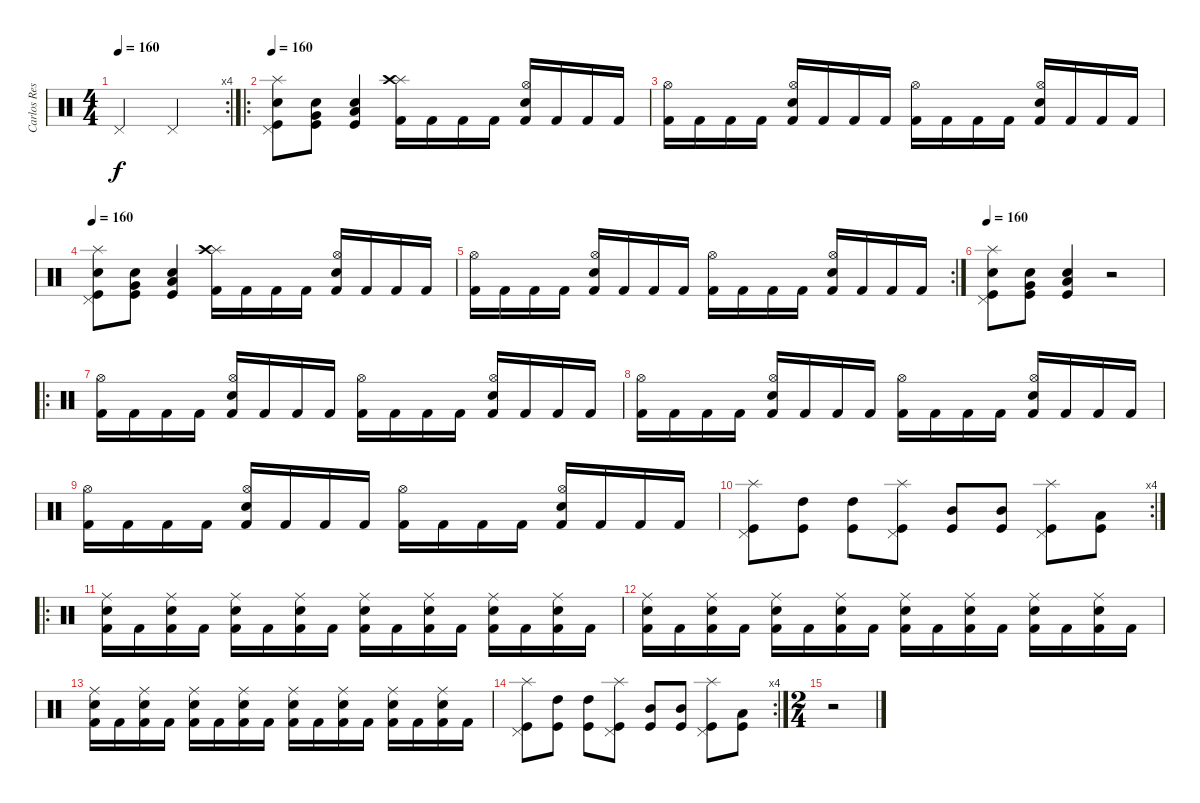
\track ("Carlos Restrepo" "Carlos Res") {instrument percussion}
\staff {score}
\articulation defaults
\rc 4
\ts (4 4)
\tempo 160
\clef neutral
\ks c "Pedal Hi-Hat (hit)".2{dy f} "Pedal Hi-Hat (hit)".2
|
\ro
\tempo 160
("Kick (hit)" "Pedal Hi-Hat (hit)" "Snare (hit) 2" "Splash (hit)").8 ("Kick (hit)" "Snare (hit) 2" "Very Low Tom (hit)").8 ("Kick (hit)" "Snare (hit) 2" "Low Tom (hit)").4 ("Splash (hit)" "Crash high (hit)" "Kick (hit) 2").16 "Kick (hit) 2".16 "Kick (hit) 2".16 "Kick (hit) 2".16 ("Hi-Hat (open)" "Electric Snare (hit)" "Kick (hit) 2").16 "Kick (hit) 2".16 "Kick (hit) 2".16 "Kick (hit) 2".16 |
("Hi-Hat (open)" "Kick (hit) 2").16 "Kick (hit) 2".16 "Kick (hit) 2".16 "Kick (hit) 2".16 ("Hi-Hat (open)" "Electric Snare (hit)" "Kick (hit) 2").16 "Kick (hit) 2".16 "Kick (hit) 2".16 "Kick (hit) 2".16 ("Hi-Hat (open)" "Kick (hit) 2").16 "Kick (hit) 2".16 "Kick (hit) 2".16 "Kick (hit) 2".16 ("Hi-Hat (open)" "Electric Snare (hit)" "Kick (hit) 2").16 "Kick (hit) 2".16 "Kick (hit) 2".16 "Kick (hit) 2".16 |
\tempo 160
("Kick (hit)" "Pedal Hi-Hat (hit)" "Snare (hit) 2" "Splash (hit)").8 ("Kick (hit)" "Snare (hit) 2" "Very Low Tom (hit)").8 ("Kick (hit)" "Snare (hit) 2" "Low Tom (hit)").4 ("Splash (hit)" "Crash high (hit)" "Kick (hit) 2").16 "Kick (hit) 2".16 "Kick (hit) 2".16 "Kick (hit) 2".16 ("Hi-Hat (open)" "Electric Snare (hit)" "Kick (hit) 2").16 "Kick (hit) 2".16 "Kick (hit) 2".16 "Kick (hit) 2".16 |
\rc 2
("Hi-Hat (open)" "Kick (hit) 2").16 "Kick (hit) 2".16 "Kick (hit) 2".16 "Kick (hit) 2".16 ("Hi-Hat (open)" "Electric Snare (hit)" "Kick (hit) 2").16 "Kick (hit) 2".16 "Kick (hit) 2".16 "Kick (hit) 2".16 ("Hi-Hat (open)" "Kick (hit) 2").16 "Kick (hit) 2".16 "Kick (hit) 2".16 "Kick (hit) 2".16 ("Hi-Hat (open)" "Electric Snare (hit)" "Kick (hit) 2").16 "Kick (hit) 2".16 "Kick (hit) 2".16 "Kick (hit) 2".16 |
\tempo 160
("Kick (hit)" "Pedal Hi-Hat (hit)" "Snare (hit) 2" "Splash (hit)").8 ("Kick (hit)" "Snare (hit) 2" "Very Low Tom (hit)").8 ("Kick (hit)" "Snare (hit) 2" "Low Tom (hit)").4 r.2 |
\ro
("Hi-Hat (open)" "Kick (hit) 2").16 "Kick (hit) 2".16 "Kick (hit) 2".16 "Kick (hit) 2".16 ("Hi-Hat (open)" "Electric Snare (hit)" "Kick (hit) 2").16 "Kick (hit) 2".16 "Kick (hit) 2".16 "Kick (hit) 2".16 ("Hi-Hat (open)" "Kick (hit) 2").16 "Kick (hit) 2".16 "Kick (hit) 2".16 "Kick (hit) 2".16 ("Hi-Hat (open)" "Electric Snare (hit)" "Kick (hit) 2").16 "Kick (hit) 2".16 "Kick (hit) 2".16 "Kick (hit) 2".16 |
("Hi-Hat (open)" "Kick (hit) 2").16 "Kick (hit) 2".16 "Kick (hit) 2".16 "Kick (hit) 2".16 ("Hi-Hat (open)" "Electric Snare (hit)" "Kick (hit) 2").16 "Kick (hit) 2".16 "Kick (hit) 2".16 "Kick (hit) 2".16 ("Hi-Hat (open)" "Kick (hit) 2").16 "Kick (hit) 2".16 "Kick (hit) 2".16 "Kick (hit) 2".16 ("Hi-Hat (open)" "Electric Snare (hit)" "Kick (hit) 2").16 "Kick (hit) 2".16 "Kick (hit) 2".16 "Kick (hit) 2".16 |
("Hi-Hat (open)" "Kick (hit) 2").16 "Kick (hit) 2".16 "Kick (hit) 2".16 "Kick (hit) 2".16 ("Hi-Hat (open)" "Electric Snare (hit)" "Kick (hit) 2").16 "Kick (hit) 2".16 "Kick (hit) 2".16 "Kick (hit) 2".16 ("Hi-Hat (open)" "Kick (hit) 2").16 "Kick (hit) 2".16 "Kick (hit) 2".16 "Kick (hit) 2".16 ("Hi-Hat (open)" "Electric Snare (hit)" "Kick (hit) 2").16 "Kick (hit) 2".16 "Kick (hit) 2".16 "Kick (hit) 2".16 |
\rc 4
("Splash (hit)" "Pedal Hi-Hat (hit)" "Kick (hit)").8 ("High Tom (hit)" "Kick (hit)").8 ("High Tom (hit)" "Kick (hit)").8 ("Splash (hit)" "Pedal Hi-Hat (hit)" "Kick (hit)").8 ("Mid Tom (hit)" "Kick (hit)").8 ("Mid Tom (hit)" "Kick (hit)").8 ("Splash (hit)" "Pedal Hi-Hat (hit)" "Kick (hit)").8 ("Low Tom (hit)" "Kick (hit)").8 |
\ro
("Kick (hit) 2" "Snare (hit) 2" "Ride (middle)").16 "Kick (hit) 2".16 ("Kick (hit) 2" "Snare (hit) 2" "Ride (middle)").16 "Kick (hit) 2".16 ("Kick (hit) 2" "Snare (hit) 2" "Ride (middle)").16 "Kick (hit) 2".16 ("Kick (hit) 2" "Snare (hit) 2" "Ride (middle)").16 "Kick (hit) 2".16 ("Kick (hit) 2" "Snare (hit) 2" "Ride (middle)").16 "Kick (hit) 2".16 ("Kick (hit) 2" "Snare (hit) 2" "Ride (middle)").16 "Kick (hit) 2".16 ("Kick (hit) 2" "Snare (hit) 2" "Ride (middle)").16 "Kick (hit) 2".16 ("Kick (hit) 2" "Snare (hit) 2" "Ride (middle)").16 "Kick (hit) 2".16 |
("Kick (hit) 2" "Snare (hit) 2" "Ride (middle)").16 "Kick (hit) 2".16 ("Kick (hit) 2" "Snare (hit) 2" "Ride (middle)").16 "Kick (hit) 2".16 ("Kick (hit) 2" "Snare (hit) 2" "Ride (middle)").16 "Kick (hit) 2".16 ("Kick (hit) 2" "Snare (hit) 2" "Ride (middle)").16 "Kick (hit) 2".16 ("Kick (hit) 2" "Snare (hit) 2" "Ride (middle)").16 "Kick (hit) 2".16 ("Kick (hit) 2" "Snare (hit) 2" "Ride (middle)").16 "Kick (hit) 2".16 ("Kick (hit) 2" "Snare (hit) 2" "Ride (middle)").16 "Kick (hit) 2".16 ("Kick (hit) 2" "Snare (hit) 2" "Ride (middle)").16 "Kick (hit) 2".16 |
("Kick (hit) 2" "Snare (hit) 2" "Ride (middle)").16 "Kick (hit) 2".16 ("Kick (hit) 2" "Snare (hit) 2" "Ride (middle)").16 "Kick (hit) 2".16 ("Kick (hit) 2" "Snare (hit) 2" "Ride (middle)").16 "Kick (hit) 2".16 ("Kick (hit) 2" "Snare (hit) 2" "Ride (middle)").16 "Kick (hit) 2".16 ("Kick (hit) 2" "Snare (hit) 2" "Ride (middle)").16 "Kick (hit) 2".16 ("Kick (hit) 2" "Snare (hit) 2" "Ride (middle)").16 "Kick (hit) 2".16 ("Kick (hit) 2" "Snare (hit) 2" "Ride (middle)").16 "Kick (hit) 2".16 ("Kick (hit) 2" "Snare (hit) 2" "Ride (middle)").16 "Kick (hit) 2".16 |
\rc 4
("Splash (hit)" "Pedal Hi-Hat (hit)" "Kick (hit)").8 ("High Tom (hit)" "Kick (hit)").8 ("High Tom (hit)" "Kick (hit)").8 ("Splash (hit)" "Pedal Hi-Hat (hit)" "Kick (hit)").8 ("Mid Tom (hit)" "Kick (hit)").8 ("Mid Tom (hit)" "Kick (hit)").8 ("Splash (hit)" "Pedal Hi-Hat (hit)" "Kick (hit)").8 ("Low Tom (hit)" "Kick (hit)").8 |
\ts (2 4)
r.2
